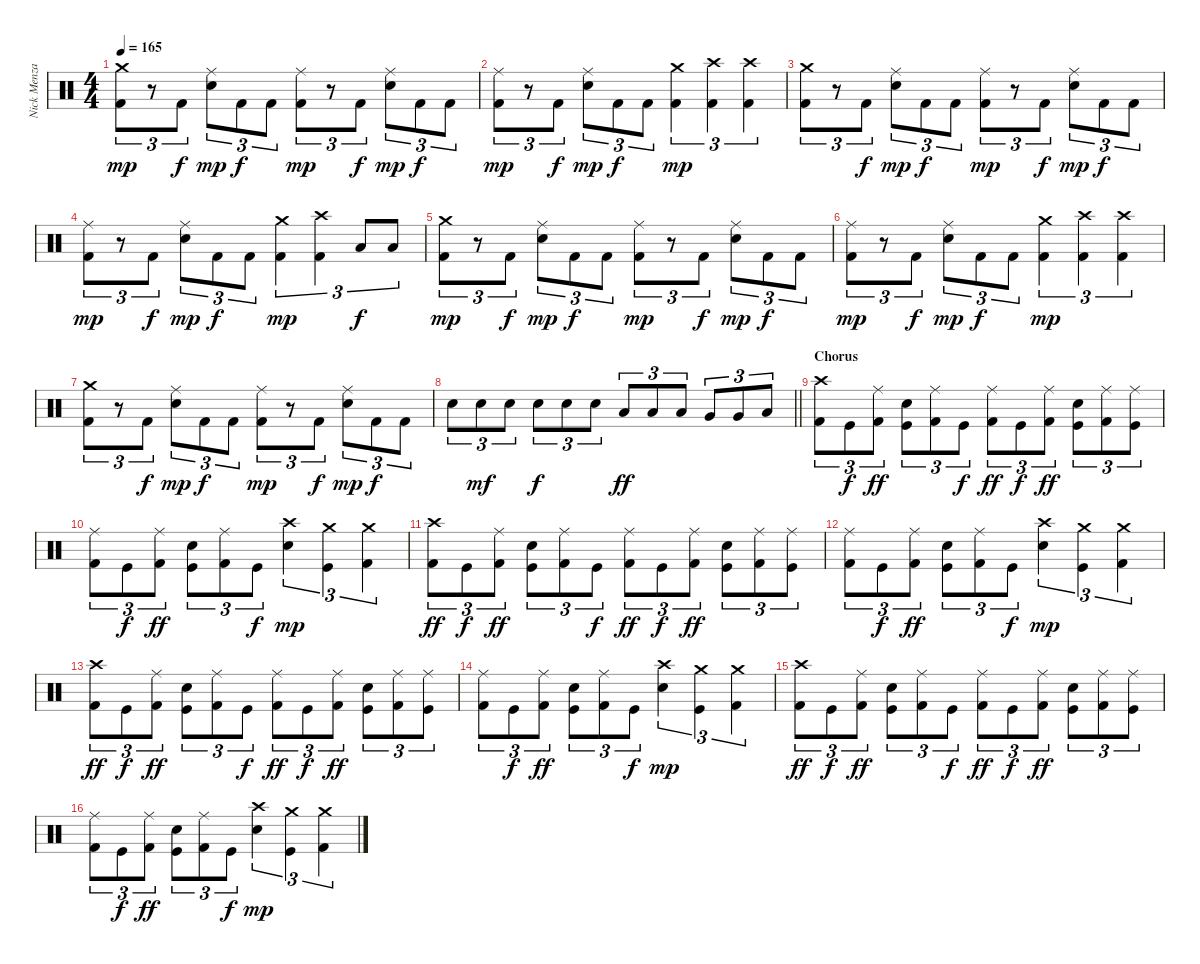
\track ("Nick Menza" "Nick Menza") {solo instrument percussion}
\staff {score}
\articulation defaults
\ts (4 4)
\tempo 165
\clef neutral
\ks c
("Crash medium (hit)" "Kick (hit) 2").8{tu (3 2) dy mp} r.8{tu (3 2)} "Kick (hit) 2".8{tu (3 2) dy f} ("Ride (middle)" "Electric Snare (hit)").8{tu (3 2) dy mp} "Kick (hit) 2".8{tu (3 2) dy f} "Kick (hit) 2".8{tu (3 2)} ("Ride (middle)" "Kick (hit) 2").8{tu (3 2) dy mp} r.8{tu (3 2)} "Kick (hit) 2".8{tu (3 2) dy f} ("Ride (middle)" "Electric Snare (hit)").8{tu (3 2) dy mp} "Kick (hit) 2".8{tu (3 2) dy f} "Kick (hit) 2".8{tu (3 2)} |
("Ride (middle)" "Kick (hit) 2").8{tu (3 2) dy mp} r.8{tu (3 2)} "Kick (hit) 2".8{tu (3 2) dy f} ("Ride (middle)" "Electric Snare (hit)").8{tu (3 2) dy mp} "Kick (hit) 2".8{tu (3 2) dy f} "Kick (hit) 2".8{tu (3 2)} ("Crash medium (hit)" "Kick (hit) 2").4{tu (3 2) dy mp} ("Crash high (hit)" "Kick (hit) 2").4{tu (3 2)} ("Crash high (hit)" "Kick (hit) 2").4{tu (3 2)} |
("Crash medium (hit)" "Kick (hit) 2").8{tu (3 2)} r.8{tu (3 2)} "Kick (hit) 2".8{tu (3 2) dy f} ("Ride (middle)" "Electric Snare (hit)").8{tu (3 2) dy mp} "Kick (hit) 2".8{tu (3 2) dy f} "Kick (hit) 2".8{tu (3 2)} ("Ride (middle)" "Kick (hit) 2").8{tu (3 2) dy mp} r.8{tu (3 2)} "Kick (hit) 2".8{tu (3 2) dy f} ("Ride (middle)" "Electric Snare (hit)").8{tu (3 2) dy mp} "Kick (hit) 2".8{tu (3 2) dy f} "Kick (hit) 2".8{tu (3 2)} |
("Ride (middle)" "Kick (hit) 2").8{tu (3 2) dy mp} r.8{tu (3 2)} "Kick (hit) 2".8{tu (3 2) dy f} ("Ride (middle)" "Electric Snare (hit)").8{tu (3 2) dy mp} "Kick (hit) 2".8{tu (3 2) dy f} "Kick (hit) 2".8{tu (3 2)} ("Crash medium (hit)" "Kick (hit) 2").4{tu (3 2) dy mp} ("Crash high (hit)" "Kick (hit) 2").4{tu (3 2)} "Low Tom (hit)".8{tu (3 2) dy f} "Low Tom (hit)".8{tu (3 2)} |
("Crash medium (hit)" "Kick (hit) 2").8{tu (3 2) dy mp} r.8{tu (3 2)} "Kick (hit) 2".8{tu (3 2) dy f} ("Ride (middle)" "Electric Snare (hit)").8{tu (3 2) dy mp} "Kick (hit) 2".8{tu (3 2) dy f} "Kick (hit) 2".8{tu (3 2)} ("Ride (middle)" "Kick (hit) 2").8{tu (3 2) dy mp} r.8{tu (3 2)} "Kick (hit) 2".8{tu (3 2) dy f} ("Ride (middle)" "Electric Snare (hit)").8{tu (3 2) dy mp} "Kick (hit) 2".8{tu (3 2) dy f} "Kick (hit) 2".8{tu (3 2)} |
("Ride (middle)" "Kick (hit) 2").8{tu (3 2) dy mp} r.8{tu (3 2)} "Kick (hit) 2".8{tu (3 2) dy f} ("Ride (middle)" "Electric Snare (hit)").8{tu (3 2) dy mp} "Kick (hit) 2".8{tu (3 2) dy f} "Kick (hit) 2".8{tu (3 2)} ("Crash medium (hit)" "Kick (hit) 2").4{tu (3 2) dy mp} ("Crash high (hit)" "Kick (hit) 2").4{tu (3 2)} ("Crash high (hit)" "Kick (hit) 2").4{tu (3 2)} |
("Crash medium (hit)" "Kick (hit) 2").8{tu (3 2)} r.8{tu (3 2)} "Kick (hit) 2".8{tu (3 2) dy f} ("Ride (middle)" "Electric Snare (hit)").8{tu (3 2) dy mp} "Kick (hit) 2".8{tu (3 2) dy f} "Kick (hit) 2".8{tu (3 2)} ("Ride (middle)" "Kick (hit) 2").8{tu (3 2) dy mp} r.8{tu (3 2)} "Kick (hit) 2".8{tu (3 2) dy f} ("Ride (middle)" "Electric Snare (hit)").8{tu (3 2) dy mp} "Kick (hit) 2".8{tu (3 2) dy f} "Kick (hit) 2".8{tu (3 2)} |
\barLineRight lightlight "Electric Snare (hit)".8{tu (3 2)} "Electric Snare (hit)".8{tu (3 2) dy mf} "Electric Snare (hit)".8{tu (3 2)} "Electric Snare (hit)".8{tu (3 2) dy f} "Electric Snare (hit)".8{tu (3 2)} "Electric Snare (hit)".8{tu (3 2)} "Low Tom (hit)".8{tu (3 2) dy ff} "Low Tom (hit)".8{tu (3 2)} "Low Tom (hit)".8{tu (3 2)} "Very Low Tom (hit)".8{tu (3 2)} "Very Low Tom (hit)".8{tu (3 2)} "Low Floor Tom (hit)".8{tu (3 2)}
|
\section ("" "Chorus")
("Crash high (hit)" "Kick (hit) 2").8{tu (3 2)} "Kick (hit)".8{tu (3 2) dy f} ("Ride (middle)" "Kick (hit) 2").8{tu (3 2) dy ff} ("Electric Snare (hit)" "Kick (hit)").8{tu (3 2)} ("Ride (middle)" "Kick (hit) 2").8{tu (3 2)} "Kick (hit)".8{tu (3 2) dy f} ("Ride (middle)" "Kick (hit) 2").8{tu (3 2) dy ff} "Kick (hit)".8{tu (3 2) dy f} ("Ride (middle)" "Kick (hit) 2").8{tu (3 2) dy ff} ("Electric Snare (hit)" "Kick (hit)").8{tu (3 2)} ("Ride (middle)" "Kick (hit) 2").8{tu (3 2)} ("Ride (middle)" "Kick (hit)").8{tu (3 2)} |
("Ride (middle)" "Kick (hit) 2").8{tu (3 2)} "Kick (hit)".8{tu (3 2) dy f} ("Ride (middle)" "Kick (hit) 2").8{tu (3 2) dy ff} ("Electric Snare (hit)" "Kick (hit)").8{tu (3 2)} ("Ride (middle)" "Kick (hit) 2").8{tu (3 2)} "Kick (hit)".8{tu (3 2) dy f} ("Crash high (hit)" "Electric Snare (hit)").4{tu (3 2) dy mp} ("Crash medium (hit)" "Kick (hit)").4{tu (3 2)} ("Crash medium (hit)" "Kick (hit) 2").4{tu (3 2)} |
("Crash high (hit)" "Kick (hit) 2").8{tu (3 2) dy ff} "Kick (hit)".8{tu (3 2) dy f} ("Ride (middle)" "Kick (hit) 2").8{tu (3 2) dy ff} ("Electric Snare (hit)" "Kick (hit)").8{tu (3 2)} ("Ride (middle)" "Kick (hit) 2").8{tu (3 2)} "Kick (hit)".8{tu (3 2) dy f} ("Ride (middle)" "Kick (hit) 2").8{tu (3 2) dy ff} "Kick (hit)".8{tu (3 2) dy f} ("Ride (middle)" "Kick (hit) 2").8{tu (3 2) dy ff} ("Electric Snare (hit)" "Kick (hit)").8{tu (3 2)} ("Ride (middle)" "Kick (hit) 2").8{tu (3 2)} ("Ride (middle)" "Kick (hit)").8{tu (3 2)} |
("Ride (middle)" "Kick (hit) 2").8{tu (3 2)} "Kick (hit)".8{tu (3 2) dy f} ("Ride (middle)" "Kick (hit) 2").8{tu (3 2) dy ff} ("Electric Snare (hit)" "Kick (hit)").8{tu (3 2)} ("Ride (middle)" "Kick (hit) 2").8{tu (3 2)} "Kick (hit)".8{tu (3 2) dy f} ("Crash high (hit)" "Electric Snare (hit)").4{tu (3 2) dy mp} ("Crash medium (hit)" "Kick (hit)").4{tu (3 2)} ("Crash medium (hit)" "Kick (hit) 2").4{tu (3 2)} |
("Crash high (hit)" "Kick (hit) 2").8{tu (3 2) dy ff} "Kick (hit)".8{tu (3 2) dy f} ("Ride (middle)" "Kick (hit) 2").8{tu (3 2) dy ff} ("Electric Snare (hit)" "Kick (hit)").8{tu (3 2)} ("Ride (middle)" "Kick (hit) 2").8{tu (3 2)} "Kick (hit)".8{tu (3 2) dy f} ("Ride (middle)" "Kick (hit) 2").8{tu (3 2) dy ff} "Kick (hit)".8{tu (3 2) dy f} ("Ride (middle)" "Kick (hit) 2").8{tu (3 2) dy ff} ("Electric Snare (hit)" "Kick (hit)").8{tu (3 2)} ("Ride (middle)" "Kick (hit) 2").8{tu (3 2)} ("Ride (middle)" "Kick (hit)").8{tu (3 2)} |
("Ride (middle)" "Kick (hit) 2").8{tu (3 2)} "Kick (hit)".8{tu (3 2) dy f} ("Ride (middle)" "Kick (hit) 2").8{tu (3 2) dy ff} ("Electric Snare (hit)" "Kick (hit)").8{tu (3 2)} ("Ride (middle)" "Kick (hit) 2").8{tu (3 2)} "Kick (hit)".8{tu (3 2) dy f} ("Crash high (hit)" "Electric Snare (hit)").4{tu (3 2) dy mp} ("Crash medium (hit)" "Kick (hit)").4{tu (3 2)} ("Crash medium (hit)" "Kick (hit) 2").4{tu (3 2)} |
("Crash high (hit)" "Kick (hit) 2").8{tu (3 2) dy ff} "Kick (hit)".8{tu (3 2) dy f} ("Ride (middle)" "Kick (hit) 2").8{tu (3 2) dy ff} ("Electric Snare (hit)" "Kick (hit)").8{tu (3 2)} ("Ride (middle)" "Kick (hit) 2").8{tu (3 2)} "Kick (hit)".8{tu (3 2) dy f} ("Ride (middle)" "Kick (hit) 2").8{tu (3 2) dy ff} "Kick (hit)".8{tu (3 2) dy f} ("Ride (middle)" "Kick (hit) 2").8{tu (3 2) dy ff} ("Electric Snare (hit)" "Kick (hit)").8{tu (3 2)} ("Ride (middle)" "Kick (hit) 2").8{tu (3 2)} ("Ride (middle)" "Kick (hit)").8{tu (3 2)} |
("Ride (middle)" "Kick (hit) 2").8{tu (3 2)} "Kick (hit)".8{tu (3 2) dy f} ("Ride (middle)" "Kick (hit) 2").8{tu (3 2) dy ff} ("Electric Snare (hit)" "Kick (hit)").8{tu (3 2)} ("Ride (middle)" "Kick (hit) 2").8{tu (3 2)} "Kick (hit)".8{tu (3 2) dy f} ("Crash high (hit)" "Electric Snare (hit)").4{tu (3 2) dy mp} ("Crash medium (hit)" "Kick (hit)").4{tu (3 2)} ("Crash medium (hit)" "Kick (hit) 2").4{tu (3 2)}
